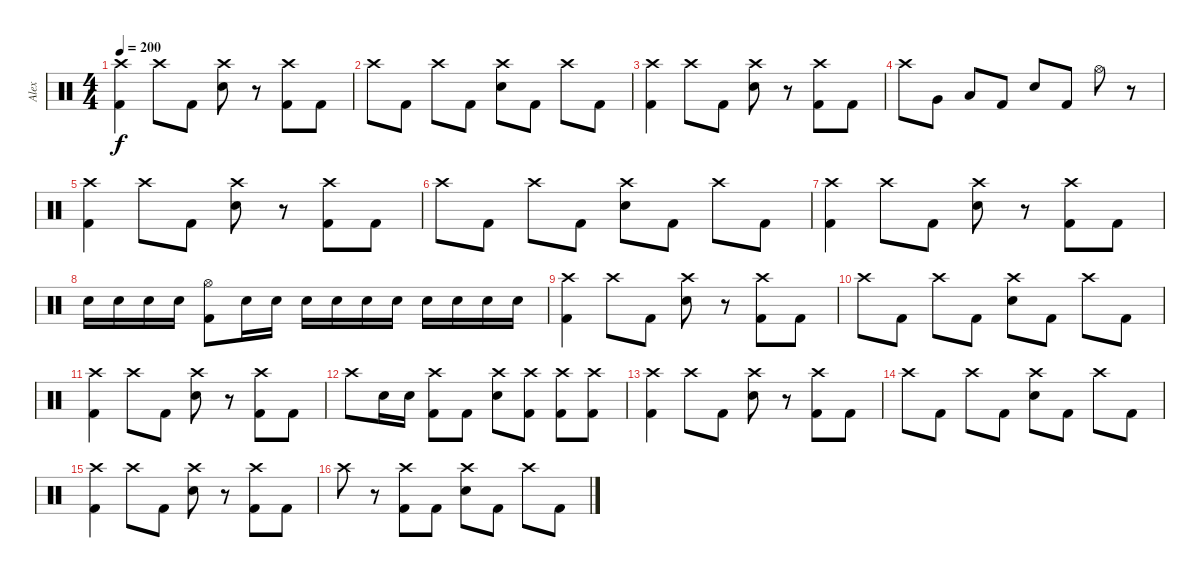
\track ("Alex" "Alex") {instrument percussion}
\staff {score}
\articulation defaults
\ts (4 4)
\tempo 200
\clef neutral
\ks c
("Crash high (hit)" "Kick (hit) 2").4{dy f} "Crash high (hit)".8 "Kick (hit) 2".8 ("Crash high (hit)" "Electric Snare (hit)").8 r.8 ("Crash high (hit)" "Kick (hit) 2").8 "Kick (hit) 2".8 |
"Crash high (hit)".8 "Kick (hit) 2".8 "Crash high (hit)".8 "Kick (hit) 2".8 ("Crash high (hit)" "Electric Snare (hit)").8 "Kick (hit) 2".8 "Crash high (hit)".8 "Kick (hit) 2".8 |
("Crash high (hit)" "Kick (hit) 2").4 "Crash high (hit)".8 "Kick (hit) 2".8 ("Crash high (hit)" "Electric Snare (hit)").8 r.8 ("Crash high (hit)" "Kick (hit) 2").8 "Kick (hit) 2".8 |
"Crash high (hit)".8 "Very Low Tom (hit)".8 "Low Floor Tom (hit)".8 "Kick (hit) 2".8 "Electric Snare (hit)".8 "Kick (hit) 2".8 "Hi-Hat (open)".8 r.8 |
("Crash high (hit)" "Kick (hit) 2").4 "Crash high (hit)".8 "Kick (hit) 2".8 ("Crash high (hit)" "Electric Snare (hit)").8 r.8 ("Crash high (hit)" "Kick (hit) 2").8 "Kick (hit) 2".8 |
"Crash high (hit)".8 "Kick (hit) 2".8 "Crash high (hit)".8 "Kick (hit) 2".8 ("Crash high (hit)" "Electric Snare (hit)").8 "Kick (hit) 2".8 "Crash high (hit)".8 "Kick (hit) 2".8 |
("Crash high (hit)" "Kick (hit) 2").4 "Crash high (hit)".8 "Kick (hit) 2".8 ("Crash high (hit)" "Electric Snare (hit)").8 r.8 ("Crash high (hit)" "Kick (hit) 2").8 "Kick (hit) 2".8 |
"Electric Snare (hit)".16 "Electric Snare (hit)".16 "Electric Snare (hit)".16 "Electric Snare (hit)".16 ("Hi-Hat (open)" "Kick (hit) 2").8 "Electric Snare (hit)".16 "Electric Snare (hit)".16 "Electric Snare (hit)".16 "Electric Snare (hit)".16 "Electric Snare (hit)".16 "Electric Snare (hit)".16 "Electric Snare (hit)".16 "Electric Snare (hit)".16 "Electric Snare (hit)".16 "Electric Snare (hit)".16 |
("Crash high (hit)" "Kick (hit) 2").4 "Crash high (hit)".8 "Kick (hit) 2".8 ("Crash high (hit)" "Electric Snare (hit)").8 r.8 ("Crash high (hit)" "Kick (hit) 2").8 "Kick (hit) 2".8 |
"Crash high (hit)".8 "Kick (hit) 2".8 "Crash high (hit)".8 "Kick (hit) 2".8 ("Crash high (hit)" "Electric Snare (hit)").8 "Kick (hit) 2".8 "Crash high (hit)".8 "Kick (hit) 2".8 |
("Crash high (hit)" "Kick (hit) 2").4 "Crash high (hit)".8 "Kick (hit) 2".8 ("Crash high (hit)" "Electric Snare (hit)").8 r.8 ("Crash high (hit)" "Kick (hit) 2").8 "Kick (hit) 2".8 |
"Crash high (hit)".8 "Electric Snare (hit)".16 "Electric Snare (hit)".16 ("Crash high (hit)" "Kick (hit) 2").8 "Kick (hit) 2".8 ("Crash high (hit)" "Electric Snare (hit)").8 ("Crash high (hit)" "Kick (hit) 2").8 ("Crash high (hit)" "Kick (hit) 2").8 ("Crash high (hit)" "Kick (hit) 2").8 |
("Crash high (hit)" "Kick (hit) 2").4 "Crash high (hit)".8 "Kick (hit) 2".8 ("Crash high (hit)" "Electric Snare (hit)").8 r.8 ("Crash high (hit)" "Kick (hit) 2").8 "Kick (hit) 2".8 |
"Crash high (hit)".8 "Kick (hit) 2".8 "Crash high (hit)".8 "Kick (hit) 2".8 ("Crash high (hit)" "Electric Snare (hit)").8 "Kick (hit) 2".8 "Crash high (hit)".8 "Kick (hit) 2".8 |
("Crash high (hit)" "Kick (hit) 2").4 "Crash high (hit)".8 "Kick (hit) 2".8 ("Crash high (hit)" "Electric Snare (hit)").8 r.8 ("Crash high (hit)" "Kick (hit) 2").8 "Kick (hit) 2".8 |
"Crash high (hit)".8 r.8 ("Crash high (hit)" "Kick (hit) 2").8 "Kick (hit) 2".8 ("Crash high (hit)" "Electric Snare (hit)").8 "Kick (hit) 2".8 "Crash high (hit)".8 "Kick (hit) 2".8
